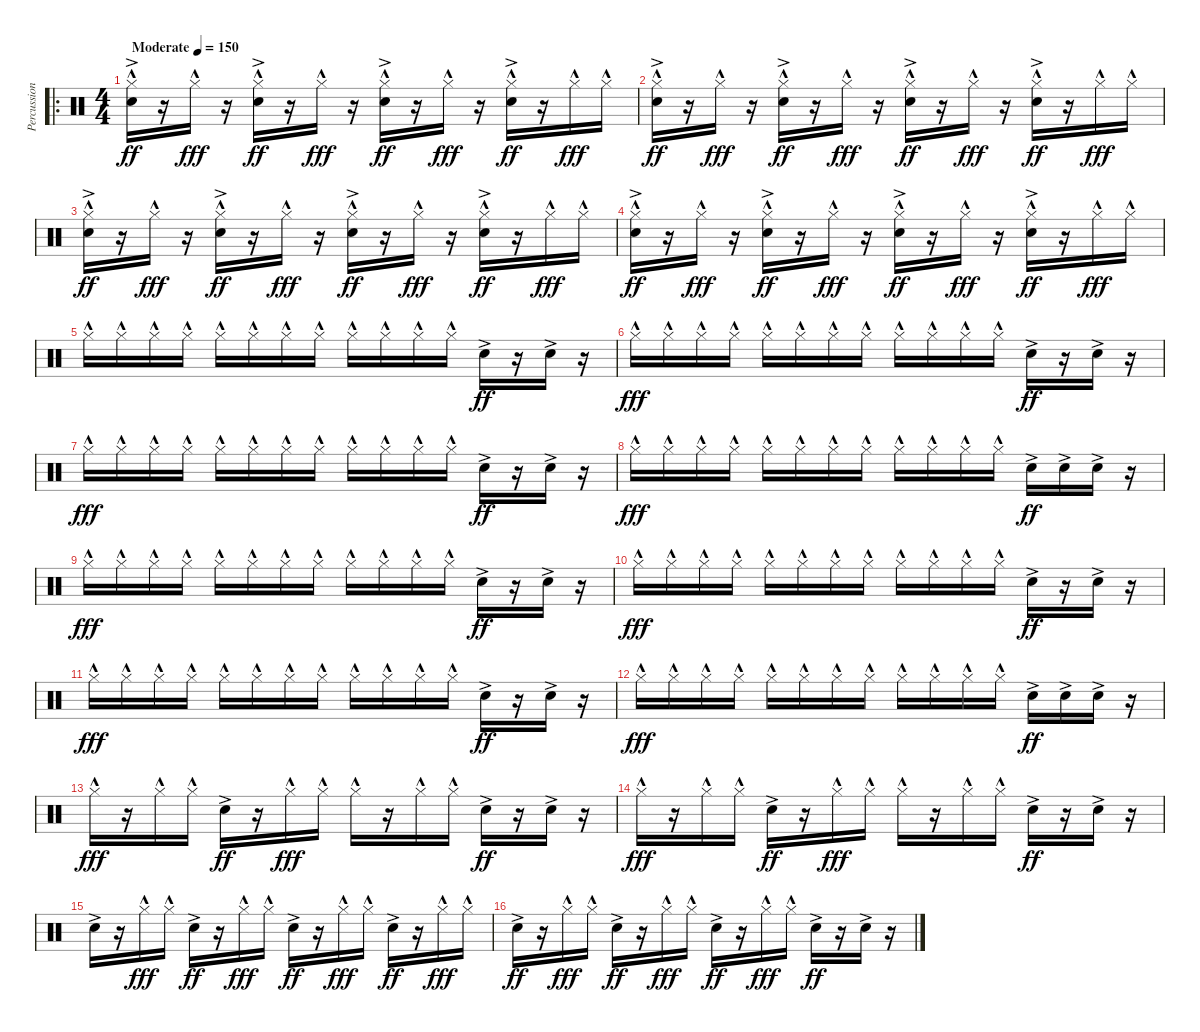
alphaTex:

\track ("Percussion" "Percussion") {instrument percussion}
\staff {score}
\articulation defaults
\ro
\ts (4 4)
\tempo (150 "Moderate")
\clef neutral
\ks c
("Hi-Hat (closed)"{hac} "Snare (hit) 2"{ac}).16{dy ff} r.16 "Hi-Hat (closed)"{hac}.16{dy fff} r.16 ("Hi-Hat (closed)"{hac} "Snare (hit) 2"{ac}).16{dy ff} r.16 "Hi-Hat (closed)"{hac}.16{dy fff} r.16 ("Hi-Hat (closed)"{hac} "Snare (hit) 2"{ac}).16{dy ff} r.16 "Hi-Hat (closed)"{hac}.16{dy fff} r.16 ("Hi-Hat (closed)"{hac} "Snare (hit) 2"{ac}).16{dy ff} r.16 "Hi-Hat (closed)"{hac}.16{dy fff} "Hi-Hat (closed)"{hac}.16 |
("Hi-Hat (closed)"{hac} "Snare (hit) 2"{ac}).16{dy ff} r.16 "Hi-Hat (closed)"{hac}.16{dy fff} r.16 ("Hi-Hat (closed)"{hac} "Snare (hit) 2"{ac}).16{dy ff} r.16 "Hi-Hat (closed)"{hac}.16{dy fff} r.16 ("Hi-Hat (closed)"{hac} "Snare (hit) 2"{ac}).16{dy ff} r.16 "Hi-Hat (closed)"{hac}.16{dy fff} r.16 ("Hi-Hat (closed)"{hac} "Snare (hit) 2"{ac}).16{dy ff} r.16 "Hi-Hat (closed)"{hac}.16{dy fff} "Hi-Hat (closed)"{hac}.16 |
("Hi-Hat (closed)"{hac} "Snare (hit) 2"{ac}).16{dy ff} r.16 "Hi-Hat (closed)"{hac}.16{dy fff} r.16 ("Hi-Hat (closed)"{hac} "Snare (hit) 2"{ac}).16{dy ff} r.16 "Hi-Hat (closed)"{hac}.16{dy fff} r.16 ("Hi-Hat (closed)"{hac} "Snare (hit) 2"{ac}).16{dy ff} r.16 "Hi-Hat (closed)"{hac}.16{dy fff} r.16 ("Hi-Hat (closed)"{hac} "Snare (hit) 2"{ac}).16{dy ff} r.16 "Hi-Hat (closed)"{hac}.16{dy fff} "Hi-Hat (closed)"{hac}.16 |
("Hi-Hat (closed)"{hac} "Snare (hit) 2"{ac}).16{dy ff} r.16 "Hi-Hat (closed)"{hac}.16{dy fff} r.16 ("Hi-Hat (closed)"{hac} "Snare (hit) 2"{ac}).16{dy ff} r.16 "Hi-Hat (closed)"{hac}.16{dy fff} r.16 ("Hi-Hat (closed)"{hac} "Snare (hit) 2"{ac}).16{dy ff} r.16 "Hi-Hat (closed)"{hac}.16{dy fff} r.16 ("Hi-Hat (closed)"{hac} "Snare (hit) 2"{ac}).16{dy ff} r.16 "Hi-Hat (closed)"{hac}.16{dy fff} "Hi-Hat (closed)"{hac}.16 |
"Hi-Hat (closed)"{hac}.16 "Hi-Hat (closed)"{hac}.16 "Hi-Hat (closed)"{hac}.16 "Hi-Hat (closed)"{hac}.16 "Hi-Hat (closed)"{hac}.16 "Hi-Hat (closed)"{hac}.16 "Hi-Hat (closed)"{hac}.16 "Hi-Hat (closed)"{hac}.16 "Hi-Hat (closed)"{hac}.16 "Hi-Hat (closed)"{hac}.16 "Hi-Hat (closed)"{hac}.16 "Hi-Hat (closed)"{hac}.16 "Snare (hit) 2"{ac}.16{dy ff} r.16 "Snare (hit) 2"{ac}.16 r.16 |
"Hi-Hat (closed)"{hac}.16{dy fff} "Hi-Hat (closed)"{hac}.16 "Hi-Hat (closed)"{hac}.16 "Hi-Hat (closed)"{hac}.16 "Hi-Hat (closed)"{hac}.16 "Hi-Hat (closed)"{hac}.16 "Hi-Hat (closed)"{hac}.16 "Hi-Hat (closed)"{hac}.16 "Hi-Hat (closed)"{hac}.16 "Hi-Hat (closed)"{hac}.16 "Hi-Hat (closed)"{hac}.16 "Hi-Hat (closed)"{hac}.16 "Snare (hit) 2"{ac}.16{dy ff} r.16 "Snare (hit) 2"{ac}.16 r.16 |
"Hi-Hat (closed)"{hac}.16{dy fff} "Hi-Hat (closed)"{hac}.16 "Hi-Hat (closed)"{hac}.16 "Hi-Hat (closed)"{hac}.16 "Hi-Hat (closed)"{hac}.16 "Hi-Hat (closed)"{hac}.16 "Hi-Hat (closed)"{hac}.16 "Hi-Hat (closed)"{hac}.16 "Hi-Hat (closed)"{hac}.16 "Hi-Hat (closed)"{hac}.16 "Hi-Hat (closed)"{hac}.16 "Hi-Hat (closed)"{hac}.16 "Snare (hit) 2"{ac}.16{dy ff} r.16 "Snare (hit) 2"{ac}.16 r.16 |
"Hi-Hat (closed)"{hac}.16{dy fff} "Hi-Hat (closed)"{hac}.16 "Hi-Hat (closed)"{hac}.16 "Hi-Hat (closed)"{hac}.16 "Hi-Hat (closed)"{hac}.16 "Hi-Hat (closed)"{hac}.16 "Hi-Hat (closed)"{hac}.16 "Hi-Hat (closed)"{hac}.16 "Hi-Hat (closed)"{hac}.16 "Hi-Hat (closed)"{hac}.16 "Hi-Hat (closed)"{hac}.16 "Hi-Hat (closed)"{hac}.16 "Snare (hit) 2"{ac}.16{dy ff} "Snare (hit) 2"{ac}.16 "Snare (hit) 2"{ac}.16 r.16 |
"Hi-Hat (closed)"{hac}.16{dy fff} "Hi-Hat (closed)"{hac}.16 "Hi-Hat (closed)"{hac}.16 "Hi-Hat (closed)"{hac}.16 "Hi-Hat (closed)"{hac}.16 "Hi-Hat (closed)"{hac}.16 "Hi-Hat (closed)"{hac}.16 "Hi-Hat (closed)"{hac}.16 "Hi-Hat (closed)"{hac}.16 "Hi-Hat (closed)"{hac}.16 "Hi-Hat (closed)"{hac}.16 "Hi-Hat (closed)"{hac}.16 "Snare (hit) 2"{ac}.16{dy ff} r.16 "Snare (hit) 2"{ac}.16 r.16 |
"Hi-Hat (closed)"{hac}.16{dy fff} "Hi-Hat (closed)"{hac}.16 "Hi-Hat (closed)"{hac}.16 "Hi-Hat (closed)"{hac}.16 "Hi-Hat (closed)"{hac}.16 "Hi-Hat (closed)"{hac}.16 "Hi-Hat (closed)"{hac}.16 "Hi-Hat (closed)"{hac}.16 "Hi-Hat (closed)"{hac}.16 "Hi-Hat (closed)"{hac}.16 "Hi-Hat (closed)"{hac}.16 "Hi-Hat (closed)"{hac}.16 "Snare (hit) 2"{ac}.16{dy ff} r.16 "Snare (hit) 2"{ac}.16 r.16 |
"Hi-Hat (closed)"{hac}.16{dy fff} "Hi-Hat (closed)"{hac}.16 "Hi-Hat (closed)"{hac}.16 "Hi-Hat (closed)"{hac}.16 "Hi-Hat (closed)"{hac}.16 "Hi-Hat (closed)"{hac}.16 "Hi-Hat (closed)"{hac}.16 "Hi-Hat (closed)"{hac}.16 "Hi-Hat (closed)"{hac}.16 "Hi-Hat (closed)"{hac}.16 "Hi-Hat (closed)"{hac}.16 "Hi-Hat (closed)"{hac}.16 "Snare (hit) 2"{ac}.16{dy ff} r.16 "Snare (hit) 2"{ac}.16 r.16 |
"Hi-Hat (closed)"{hac}.16{dy fff} "Hi-Hat (closed)"{hac}.16 "Hi-Hat (closed)"{hac}.16 "Hi-Hat (closed)"{hac}.16 "Hi-Hat (closed)"{hac}.16 "Hi-Hat (closed)"{hac}.16 "Hi-Hat (closed)"{hac}.16 "Hi-Hat (closed)"{hac}.16 "Hi-Hat (closed)"{hac}.16 "Hi-Hat (closed)"{hac}.16 "Hi-Hat (closed)"{hac}.16 "Hi-Hat (closed)"{hac}.16 "Snare (hit) 2"{ac}.16{dy ff} "Snare (hit) 2"{ac}.16 "Snare (hit) 2"{ac}.16 r.16 |
"Hi-Hat (closed)"{hac}.16{dy fff} r.16 "Hi-Hat (closed)"{hac}.16 "Hi-Hat (closed)"{hac}.16 "Snare (hit) 2"{ac}.16{dy ff} r.16 "Hi-Hat (closed)"{hac}.16{dy fff} "Hi-Hat (closed)"{hac}.16 "Hi-Hat (closed)"{hac}.16 r.16 "Hi-Hat (closed)"{hac}.16 "Hi-Hat (closed)"{hac}.16 "Snare (hit) 2"{ac}.16{dy ff} r.16 "Snare (hit) 2"{ac}.16 r.16 |
"Hi-Hat (closed)"{hac}.16{dy fff} r.16 "Hi-Hat (closed)"{hac}.16 "Hi-Hat (closed)"{hac}.16 "Snare (hit) 2"{ac}.16{dy ff} r.16 "Hi-Hat (closed)"{hac}.16{dy fff} "Hi-Hat (closed)"{hac}.16 "Hi-Hat (closed)"{hac}.16 r.16 "Hi-Hat (closed)"{hac}.16 "Hi-Hat (closed)"{hac}.16 "Snare (hit) 2"{ac}.16{dy ff} r.16 "Snare (hit) 2"{ac}.16 r.16 |
"Snare (hit) 2"{ac}.16 r.16 "Hi-Hat (closed)"{hac}.16{dy fff} "Hi-Hat (closed)"{hac}.16 "Snare (hit) 2"{ac}.16{dy ff} r.16 "Hi-Hat (closed)"{hac}.16{dy fff} "Hi-Hat (closed)"{hac}.16 "Snare (hit) 2"{ac}.16{dy ff} r.16 "Hi-Hat (closed)"{hac}.16{dy fff} "Hi-Hat (closed)"{hac}.16 "Snare (hit) 2"{ac}.16{dy ff} r.16 "Hi-Hat (closed)"{hac}.16{dy fff} "Hi-Hat (closed)"{hac}.16 |
"Snare (hit) 2"{ac}.16{dy ff} r.16 "Hi-Hat (closed)"{hac}.16{dy fff} "Hi-Hat (closed)"{hac}.16 "Snare (hit) 2"{ac}.16{dy ff} r.16 "Hi-Hat (closed)"{hac}.16{dy fff} "Hi-Hat (closed)"{hac}.16 "Snare (hit) 2"{ac}.16{dy ff} r.16 "Hi-Hat (closed)"{hac}.16{dy fff} "Hi-Hat (closed)"{hac}.16 "Snare (hit) 2"{ac}.16{dy ff} r.16 "Snare (hit) 2"{ac}.16 r.16
